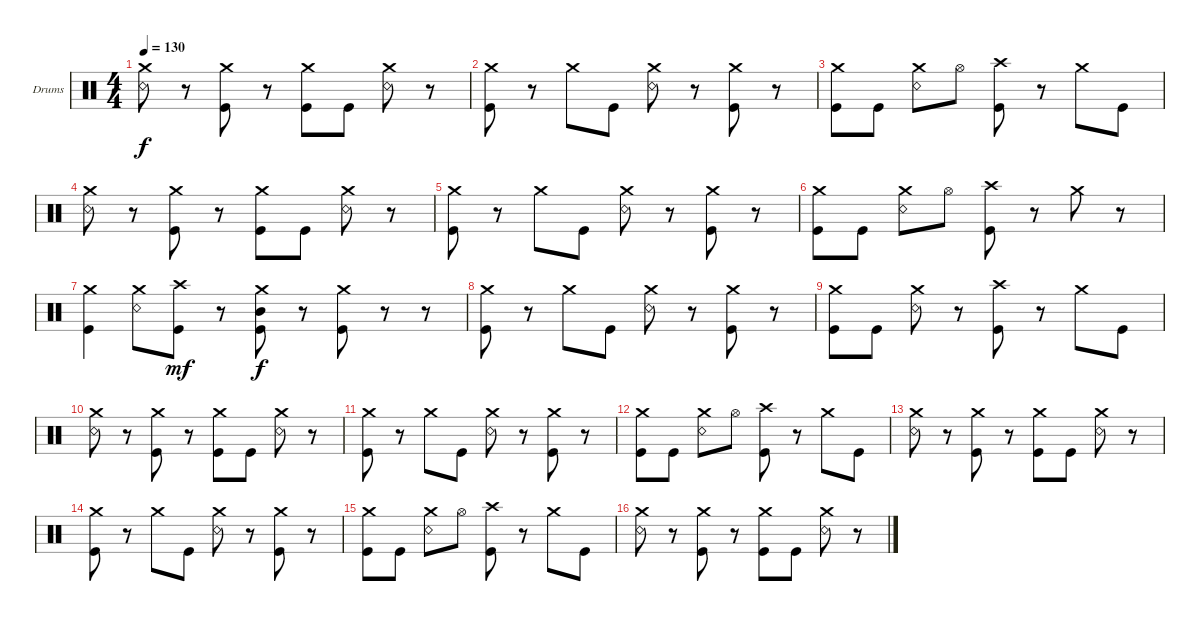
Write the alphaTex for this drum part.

\bracketExtendMode groupsimilarinstruments
\firstSystemTrackNameOrientation horizontal
\otherSystemsTrackNameOrientation horizontal
\track ("Drumkit" "Drums") {instrument percussion}
\staff {score}
\articulation defaults
\ts (4 4)
\tempo 130
\clef neutral
\ks c
("Snare (rim shot)" "Crash medium (hit)").8{dy f} r.8 ("Kick (hit)" "Crash medium (hit)").8 r.8 ("Kick (hit)" "Crash medium (hit)").8 "Kick (hit)".8 ("Snare (rim shot)" "Crash medium (hit)").8 r.8 |
("Kick (hit)" "Crash medium (hit)").8 r.8 "Crash medium (hit)".8 "Kick (hit)".8 ("Snare (rim shot)" "Crash medium (hit)").8 r.8 ("Kick (hit)" "Crash medium (hit)").8 r.8 |
("Kick (hit)" "Crash medium (hit)").8 "Kick (hit)".8 ("Snare (rim shot)" "Crash medium (hit)").8 "Hi-Hat (open)".8 ("Kick (hit)" "Crash high (hit)").8 r.8 "Crash medium (hit)".8 "Kick (hit)".8 |
("Snare (rim shot)" "Crash medium (hit)").8 r.8 ("Kick (hit)" "Crash medium (hit)").8 r.8 ("Kick (hit)" "Crash medium (hit)").8 "Kick (hit)".8 ("Snare (rim shot)" "Crash medium (hit)").8 r.8 |
("Kick (hit)" "Crash medium (hit)").8 r.8 "Crash medium (hit)".8 "Kick (hit)".8 ("Snare (rim shot)" "Crash medium (hit)").8 r.8 ("Kick (hit)" "Crash medium (hit)").8 r.8 |
("Kick (hit)" "Crash medium (hit)").8 "Kick (hit)".8 ("Snare (rim shot)" "Crash medium (hit)").8 "Hi-Hat (open)".8 ("Kick (hit)" "Crash high (hit)").8 r.8 "Crash medium (hit)".8 r.8 |
("Kick (hit)" "Crash medium (hit)").4 ("Crash medium (hit)" "Snare (rim shot)").8 ("Kick (hit)" "Crash high (hit)").8{dy mf} r.8 ("Kick (hit)" "Crash medium (hit)" "Mid Tom (hit)").8{dy f} r.8 ("Kick (hit)" "Crash medium (hit)").8 r.8 r.8 |
("Kick (hit)" "Crash medium (hit)").8 r.8 "Crash medium (hit)".8 "Kick (hit)".8 ("Snare (rim shot)" "Crash medium (hit)").8 r.8 ("Kick (hit)" "Crash medium (hit)").8 r.8 |
("Kick (hit)" "Crash medium (hit)").8 "Kick (hit)".8 ("Snare (rim shot)" "Crash medium (hit)").8 r.8 ("Kick (hit)" "Crash high (hit)").8 r.8 "Crash medium (hit)".8 "Kick (hit)".8 |
("Snare (rim shot)" "Crash medium (hit)").8 r.8 ("Kick (hit)" "Crash medium (hit)").8 r.8 ("Kick (hit)" "Crash medium (hit)").8 "Kick (hit)".8 ("Snare (rim shot)" "Crash medium (hit)").8 r.8 |
("Kick (hit)" "Crash medium (hit)").8 r.8 "Crash medium (hit)".8 "Kick (hit)".8 ("Snare (rim shot)" "Crash medium (hit)").8 r.8 ("Kick (hit)" "Crash medium (hit)").8 r.8 |
("Kick (hit)" "Crash medium (hit)").8 "Kick (hit)".8 ("Snare (rim shot)" "Crash medium (hit)").8 "Hi-Hat (open)".8 ("Kick (hit)" "Crash high (hit)").8 r.8 "Crash medium (hit)".8 "Kick (hit)".8 |
("Snare (rim shot)" "Crash medium (hit)").8 r.8 ("Kick (hit)" "Crash medium (hit)").8 r.8 ("Kick (hit)" "Crash medium (hit)").8 "Kick (hit)".8 ("Snare (rim shot)" "Crash medium (hit)").8 r.8 |
("Kick (hit)" "Crash medium (hit)").8 r.8 "Crash medium (hit)".8 "Kick (hit)".8 ("Snare (rim shot)" "Crash medium (hit)").8 r.8 ("Kick (hit)" "Crash medium (hit)").8 r.8 |
("Kick (hit)" "Crash medium (hit)").8 "Kick (hit)".8 ("Snare (rim shot)" "Crash medium (hit)").8 "Hi-Hat (open)".8 ("Kick (hit)" "Crash high (hit)").8 r.8 "Crash medium (hit)".8 "Kick (hit)".8 |
("Snare (rim shot)" "Crash medium (hit)").8 r.8 ("Kick (hit)" "Crash medium (hit)").8 r.8 ("Kick (hit)" "Crash medium (hit)").8 "Kick (hit)".8 ("Snare (rim shot)" "Crash medium (hit)").8 r.8
